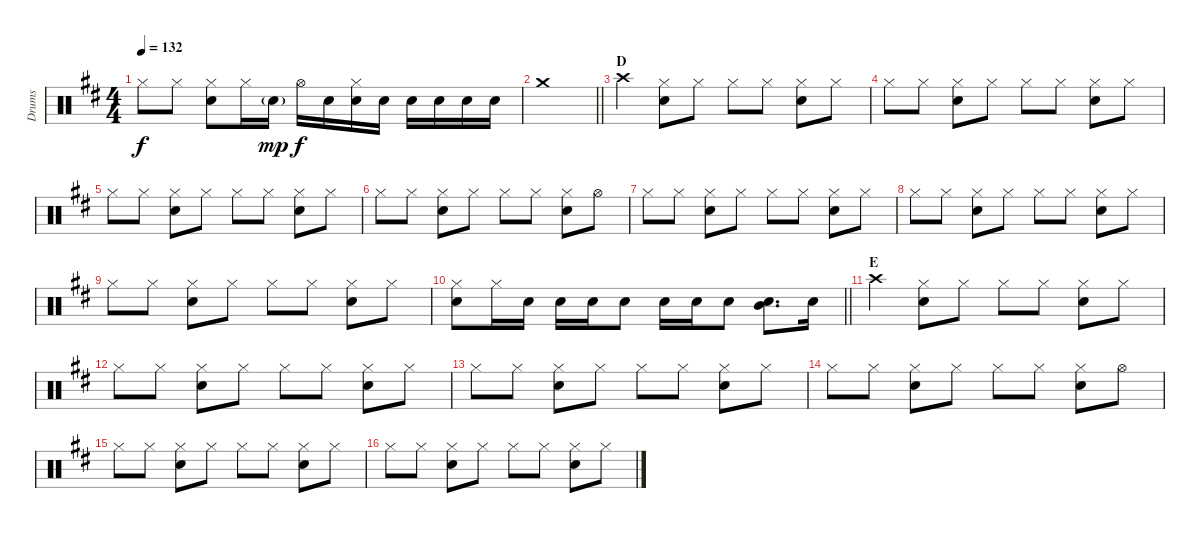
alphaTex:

\track ("Drums" "Drums") {instrument percussion}
\staff {score}
\articulation defaults
\ts (4 4)
\tempo 132
\clef neutral
\ks d "Hi-Hat (closed)".8{dy f} "Hi-Hat (closed)".8
("Hi-Hat (closed)" "Snare (hit) 2").8 "Hi-Hat (closed)".16 "Snare (hit) 2"{g}.16{dy mp} "Hi-Hat (open)".16{dy f} "Snare (hit) 2".16 ("Hi-Hat (closed)" "Snare (hit) 2").16 "Snare (hit) 2".16 "Snare (hit) 2".16 "Snare (hit) 2".16 "Snare (hit) 2".16 "Snare (hit) 2".16 |
\barLineRight lightlight "Crash medium (hit)".1
|
\section ("" "D")
"Crash high (hit)".4 ("Hi-Hat (closed)" "Snare (hit) 2").8 "Hi-Hat (closed)".8 "Hi-Hat (closed)".8 "Hi-Hat (closed)".8 ("Hi-Hat (closed)" "Snare (hit) 2").8 "Hi-Hat (closed)".8 |
"Hi-Hat (closed)".8 "Hi-Hat (closed)".8 ("Hi-Hat (closed)" "Snare (hit) 2").8 "Hi-Hat (closed)".8 "Hi-Hat (closed)".8 "Hi-Hat (closed)".8 ("Hi-Hat (closed)" "Snare (hit) 2").8 "Hi-Hat (closed)".8 |
"Hi-Hat (closed)".8 "Hi-Hat (closed)".8 ("Hi-Hat (closed)" "Snare (hit) 2").8 "Hi-Hat (closed)".8 "Hi-Hat (closed)".8 "Hi-Hat (closed)".8 ("Hi-Hat (closed)" "Snare (hit) 2").8 "Hi-Hat (closed)".8 |
"Hi-Hat (closed)".8 "Hi-Hat (closed)".8 ("Hi-Hat (closed)" "Snare (hit) 2").8 "Hi-Hat (closed)".8 "Hi-Hat (closed)".8 "Hi-Hat (closed)".8 ("Hi-Hat (closed)" "Snare (hit) 2").8 "Hi-Hat (open)".8 |
"Hi-Hat (closed)".8 "Hi-Hat (closed)".8 ("Hi-Hat (closed)" "Snare (hit) 2").8 "Hi-Hat (closed)".8 "Hi-Hat (closed)".8 "Hi-Hat (closed)".8 ("Hi-Hat (closed)" "Snare (hit) 2").8 "Hi-Hat (closed)".8 |
"Hi-Hat (closed)".8 "Hi-Hat (closed)".8 ("Hi-Hat (closed)" "Snare (hit) 2").8 "Hi-Hat (closed)".8 "Hi-Hat (closed)".8 "Hi-Hat (closed)".8 ("Hi-Hat (closed)" "Snare (hit) 2").8 "Hi-Hat (closed)".8 |
"Hi-Hat (closed)".8 "Hi-Hat (closed)".8 ("Hi-Hat (closed)" "Snare (hit) 2").8 "Hi-Hat (closed)".8 "Hi-Hat (closed)".8 "Hi-Hat (closed)".8 ("Hi-Hat (closed)" "Snare (hit) 2").8 "Hi-Hat (closed)".8 |
\barLineRight lightlight
("Hi-Hat (closed)" "Snare (hit) 2").8 "Hi-Hat (closed)".16 "Snare (hit) 2".16 "Snare (hit) 2".16 "Snare (hit) 2".16 "Snare (hit) 2".8 "Snare (hit) 2".16 "Snare (hit) 2".16 "Snare (hit) 2".8 ("Snare (hit) 2" "Mid Tom (hit)").8{d} "Snare (hit) 2".16 |
\section ("" "E")
"Crash high (hit)".4 ("Hi-Hat (closed)" "Snare (hit) 2").8 "Hi-Hat (closed)".8 "Hi-Hat (closed)".8 "Hi-Hat (closed)".8 ("Hi-Hat (closed)" "Snare (hit) 2").8 "Hi-Hat (closed)".8 |
"Hi-Hat (closed)".8 "Hi-Hat (closed)".8 ("Hi-Hat (closed)" "Snare (hit) 2").8 "Hi-Hat (closed)".8 "Hi-Hat (closed)".8 "Hi-Hat (closed)".8 ("Hi-Hat (closed)" "Snare (hit) 2").8 "Hi-Hat (closed)".8 |
"Hi-Hat (closed)".8 "Hi-Hat (closed)".8 ("Hi-Hat (closed)" "Snare (hit) 2").8 "Hi-Hat (closed)".8 "Hi-Hat (closed)".8 "Hi-Hat (closed)".8 ("Hi-Hat (closed)" "Snare (hit) 2").8 "Hi-Hat (closed)".8 |
"Hi-Hat (closed)".8 "Hi-Hat (closed)".8 ("Hi-Hat (closed)" "Snare (hit) 2").8 "Hi-Hat (closed)".8 "Hi-Hat (closed)".8 "Hi-Hat (closed)".8 ("Hi-Hat (closed)" "Snare (hit) 2").8 "Hi-Hat (open)".8 |
"Hi-Hat (closed)".8 "Hi-Hat (closed)".8 ("Hi-Hat (closed)" "Snare (hit) 2").8 "Hi-Hat (closed)".8 "Hi-Hat (closed)".8 "Hi-Hat (closed)".8 ("Hi-Hat (closed)" "Snare (hit) 2").8 "Hi-Hat (closed)".8 |
"Hi-Hat (closed)".8 "Hi-Hat (closed)".8 ("Hi-Hat (closed)" "Snare (hit) 2").8 "Hi-Hat (closed)".8 "Hi-Hat (closed)".8 "Hi-Hat (closed)".8 ("Hi-Hat (closed)" "Snare (hit) 2").8 "Hi-Hat (closed)".8
